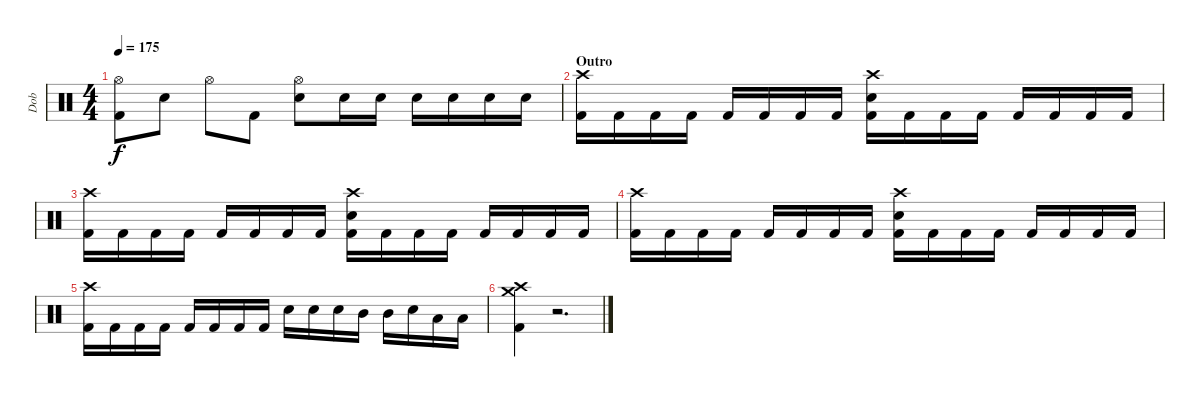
\track ("Dob" "Dob") {instrument percussion}
\staff {score}
\articulation defaults
\ts (4 4)
\tempo 175
\clef neutral
\ks c
("Hi-Hat (open)" "Kick (hit) 2").8{dy f} "Snare (hit) 2".8 "Hi-Hat (open)".8 "Kick (hit) 2".8 ("Hi-Hat (open)" "Snare (hit) 2").8 "Snare (hit) 2".16 "Snare (hit) 2".16 "Snare (hit) 2".16 "Snare (hit) 2".16 "Snare (hit) 2".16 "Snare (hit) 2".16 |
\section ("" "Outro")
("Crash high (hit)" "Kick (hit) 2").16 "Kick (hit) 2".16 "Kick (hit) 2".16 "Kick (hit) 2".16 "Kick (hit) 2".16 "Kick (hit) 2".16 "Kick (hit) 2".16 "Kick (hit) 2".16 ("Crash high (hit)" "Snare (hit) 2" "Kick (hit) 2").16 "Kick (hit) 2".16 "Kick (hit) 2".16 "Kick (hit) 2".16 "Kick (hit) 2".16 "Kick (hit) 2".16 "Kick (hit) 2".16 "Kick (hit) 2".16 |
("Crash high (hit)" "Kick (hit) 2").16 "Kick (hit) 2".16 "Kick (hit) 2".16 "Kick (hit) 2".16 "Kick (hit) 2".16 "Kick (hit) 2".16 "Kick (hit) 2".16 "Kick (hit) 2".16 ("Crash high (hit)" "Snare (hit) 2" "Kick (hit) 2").16 "Kick (hit) 2".16 "Kick (hit) 2".16 "Kick (hit) 2".16 "Kick (hit) 2".16 "Kick (hit) 2".16 "Kick (hit) 2".16 "Kick (hit) 2".16 |
("Crash high (hit)" "Kick (hit) 2").16 "Kick (hit) 2".16 "Kick (hit) 2".16 "Kick (hit) 2".16 "Kick (hit) 2".16 "Kick (hit) 2".16 "Kick (hit) 2".16 "Kick (hit) 2".16 ("Crash high (hit)" "Snare (hit) 2" "Kick (hit) 2").16 "Kick (hit) 2".16 "Kick (hit) 2".16 "Kick (hit) 2".16 "Kick (hit) 2".16 "Kick (hit) 2".16 "Kick (hit) 2".16 "Kick (hit) 2".16 |
("Crash high (hit)" "Kick (hit) 2").16 "Kick (hit) 2".16 "Kick (hit) 2".16 "Kick (hit) 2".16 "Kick (hit) 2".16 "Kick (hit) 2".16 "Kick (hit) 2".16 "Kick (hit) 2".16 "Snare (hit) 2".16 "Snare (hit) 2".16 "Snare (hit) 2".16 "Mid Tom (hit)".16 "Mid Tom (hit)".16 "Snare (hit) 2".16 "Low Tom (hit)".16 "Low Tom (hit)".16 |
("Crash high (hit)" "Crash medium (hit)" "Kick (hit) 2").4 r.2{d}
